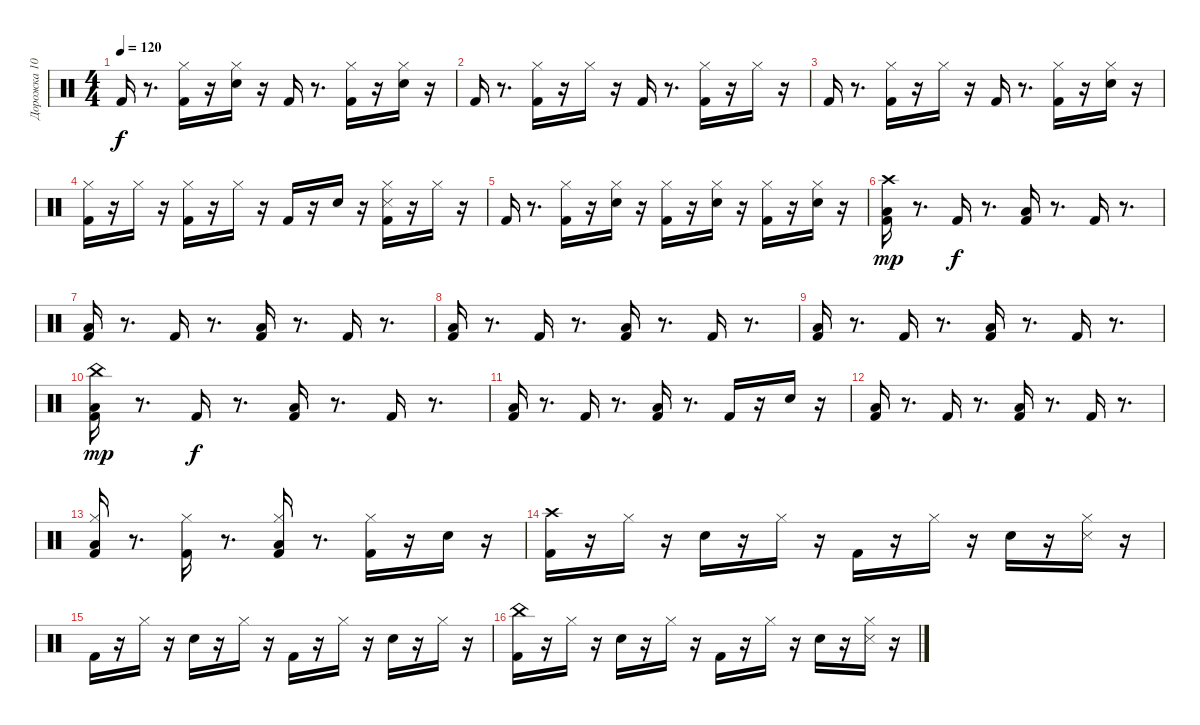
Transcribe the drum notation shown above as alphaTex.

\track ("Дорожка 10" "Дорожка 10") {instrument percussion}
\staff {score}
\articulation defaults
\ts (4 4)
\tempo 120
\clef neutral
\ks c "Kick (hit) 2".16{dy f}
r.8{d} ("Kick (hit) 2" "Hi-Hat (closed)").16 r.16 ("Hand Clap (hit)" "Hi-Hat (closed)").16 r.16 "Kick (hit) 2".16 r.8{d} ("Kick (hit) 2" "Hi-Hat (closed)").16 r.16 ("Snare (hit) 2" "Hi-Hat (closed)").16 r.16 |
"Kick (hit) 2".16 r.8{d} ("Kick (hit) 2" "Hi-Hat (closed)").16 r.16 "Hi-Hat (closed)".16 r.16 "Kick (hit) 2".16 r.8{d} ("Kick (hit) 2" "Hi-Hat (closed)").16 r.16 "Hi-Hat (closed)".16 r.16 |
"Kick (hit) 2".16 r.8{d} ("Kick (hit) 2" "Hi-Hat (closed)").16 r.16 "Hi-Hat (closed)".16 r.16 "Kick (hit) 2".16 r.8{d} ("Kick (hit) 2" "Hi-Hat (closed)").16 r.16 ("Snare (hit) 2" "Hi-Hat (closed)").16 r.16 |
("Kick (hit) 2" "Hi-Hat (closed)").16 r.16 "Hi-Hat (closed)".16 r.16 ("Kick (hit) 2" "Hi-Hat (closed)").16 r.16 "Hi-Hat (closed)".16 r.16 "Kick (hit) 2".16 r.16 "Hand Clap (hit)".16 r.16 ("Kick (hit) 2" "Snare (side stick) 3" "Hi-Hat (closed)").16 r.16 "Hi-Hat (closed)".16 r.16 |
"Kick (hit) 2".16 r.8{d} ("Kick (hit) 2" "Hi-Hat (closed)").16 r.16 ("Hand Clap (hit)" "Hi-Hat (closed)").16 r.16 ("Kick (hit) 2" "Hi-Hat (closed)").16 r.16 ("Hand Clap (hit)" "Hi-Hat (closed)").16 r.16 ("Kick (hit) 2" "Hi-Hat (closed)").16 r.16 ("Snare (hit) 2" "Hi-Hat (closed)").16 r.16 |
("Kick (hit) 2" "Low Floor Tom (hit)" "Crash high (hit)").16{dy mp} r.8{d} "Kick (hit) 2".16{dy f} r.8{d} ("Kick (hit) 2" "Low Floor Tom (hit)").16 r.8{d} "Kick (hit) 2".16 r.8{d} |
("Kick (hit) 2" "Low Floor Tom (hit)").16 r.8{d} "Kick (hit) 2".16 r.8{d} ("Kick (hit) 2" "Low Floor Tom (hit)").16 r.8{d} "Kick (hit) 2".16 r.8{d} |
("Kick (hit) 2" "Low Floor Tom (hit)").16 r.8{d} "Kick (hit) 2".16 r.8{d} ("Kick (hit) 2" "Low Floor Tom (hit)").16 r.8{d} "Kick (hit) 2".16 r.8{d} |
("Kick (hit) 2" "Low Floor Tom (hit)").16 r.8{d} "Kick (hit) 2".16 r.8{d} ("Kick (hit) 2" "Low Floor Tom (hit)").16 r.8{d} "Kick (hit) 2".16 r.8{d} |
("Kick (hit) 2" "Low Floor Tom (hit)" "China (hit)").16{dy mp} r.8{d} "Kick (hit) 2".16{dy f} r.8{d} ("Kick (hit) 2" "Low Floor Tom (hit)").16 r.8{d} "Kick (hit) 2".16 r.8{d} |
("Kick (hit) 2" "Low Floor Tom (hit)").16 r.8{d} "Kick (hit) 2".16 r.8{d} ("Kick (hit) 2" "Low Floor Tom (hit)").16 r.8{d} "Kick (hit) 2".16 r.16 "Snare (hit) 2".16 r.16 |
("Kick (hit) 2" "Low Floor Tom (hit)").16 r.8{d} "Kick (hit) 2".16 r.8{d} ("Kick (hit) 2" "Low Floor Tom (hit)").16 r.8{d} "Kick (hit) 2".16 r.8{d} |
("Kick (hit) 2" "Low Floor Tom (hit)" "Hi-Hat (closed)").16 r.8{d} ("Kick (hit) 2" "Hi-Hat (closed)").16 r.8{d} ("Kick (hit) 2" "Low Floor Tom (hit)" "Hi-Hat (closed)").16 r.8{d} ("Kick (hit) 2" "Hi-Hat (closed)").16 r.16 "Snare (hit) 2".16 r.16 |
("Kick (hit) 2" "Crash high (hit)").16 r.16 "Hi-Hat (closed)".16 r.16 "Snare (hit) 2".16 r.16 "Hi-Hat (closed)".16 r.16 "Kick (hit) 2".16 r.16 "Hi-Hat (closed)".16 r.16 "Snare (hit) 2".16 r.16 ("Snare (side stick) 3" "Hi-Hat (closed)").16 r.16 |
"Kick (hit) 2".16 r.16 "Hi-Hat (closed)".16 r.16 "Snare (hit) 2".16 r.16 "Hi-Hat (closed)".16 r.16 "Kick (hit) 2".16 r.16 "Hi-Hat (closed)".16 r.16 "Snare (hit) 2".16 r.16 "Hi-Hat (closed)".16 r.16 |
("Kick (hit) 2" "China (hit)").16 r.16 "Hi-Hat (closed)".16 r.16 "Snare (hit) 2".16 r.16 "Hi-Hat (closed)".16 r.16 "Kick (hit) 2".16 r.16 "Hi-Hat (closed)".16 r.16 "Snare (hit) 2".16 r.16 ("Snare (side stick) 3" "Hi-Hat (closed)").16 r.16
